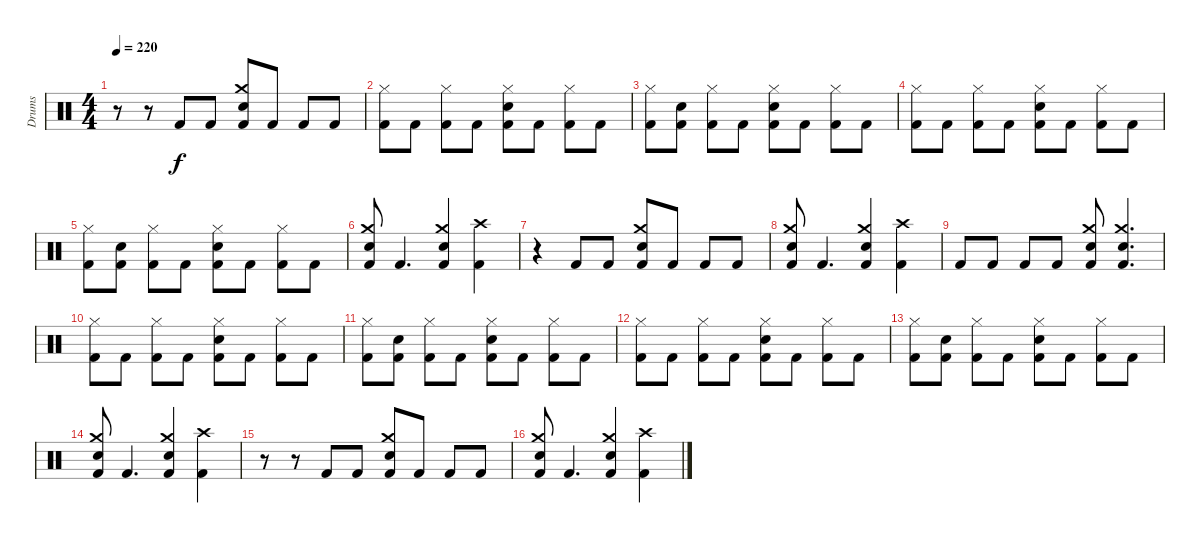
\track ("Drums" "Drums") {instrument percussion}
\staff {score}
\articulation defaults
\ts (4 4)
\tempo 220
\clef neutral
\ks c
r.8{dy f} r.8 "Kick (hit) 2".8 "Kick (hit) 2".8 ("Crash medium (hit)" "Snare (hit) 2" "Kick (hit) 2").8 "Kick (hit) 2".8 "Kick (hit) 2".8 "Kick (hit) 2".8 |
("Hi-Hat (closed)" "Kick (hit) 2").8 "Kick (hit) 2".8 ("Hi-Hat (closed)" "Kick (hit) 2").8 "Kick (hit) 2".8 ("Hi-Hat (closed)" "Snare (hit) 2" "Kick (hit) 2").8 "Kick (hit) 2".8 ("Hi-Hat (closed)" "Kick (hit) 2").8 "Kick (hit) 2".8 |
("Hi-Hat (closed)" "Kick (hit) 2").8 ("Snare (hit) 2" "Kick (hit) 2").8 ("Hi-Hat (closed)" "Kick (hit) 2").8 "Kick (hit) 2".8 ("Hi-Hat (closed)" "Snare (hit) 2" "Kick (hit) 2").8 "Kick (hit) 2".8 ("Hi-Hat (closed)" "Kick (hit) 2").8 "Kick (hit) 2".8 |
("Hi-Hat (closed)" "Kick (hit) 2").8 "Kick (hit) 2".8 ("Hi-Hat (closed)" "Kick (hit) 2").8 "Kick (hit) 2".8 ("Hi-Hat (closed)" "Snare (hit) 2" "Kick (hit) 2").8 "Kick (hit) 2".8 ("Hi-Hat (closed)" "Kick (hit) 2").8 "Kick (hit) 2".8 |
("Hi-Hat (closed)" "Kick (hit) 2").8 ("Snare (hit) 2" "Kick (hit) 2").8 ("Hi-Hat (closed)" "Kick (hit) 2").8 "Kick (hit) 2".8 ("Hi-Hat (closed)" "Snare (hit) 2" "Kick (hit) 2").8 "Kick (hit) 2".8 ("Hi-Hat (closed)" "Kick (hit) 2").8 "Kick (hit) 2".8 |
("Crash medium (hit)" "Snare (hit) 2" "Kick (hit) 2").8 "Kick (hit) 2".4{d} ("Crash medium (hit)" "Snare (hit) 2" "Kick (hit) 2").4 ("Crash high (hit)" "Kick (hit) 2").4 |
r.4 "Kick (hit) 2".8 "Kick (hit) 2".8 ("Crash medium (hit)" "Snare (hit) 2" "Kick (hit) 2").8 "Kick (hit) 2".8 "Kick (hit) 2".8 "Kick (hit) 2".8 |
("Crash medium (hit)" "Snare (hit) 2" "Kick (hit) 2").8 "Kick (hit) 2".4{d} ("Crash medium (hit)" "Snare (hit) 2" "Kick (hit) 2").4 ("Crash high (hit)" "Kick (hit) 2").4 |
"Kick (hit) 2".8 "Kick (hit) 2".8 "Kick (hit) 2".8 "Kick (hit) 2".8 ("Crash medium (hit)" "Snare (hit) 2" "Kick (hit) 2").8 ("Crash medium (hit)" "Snare (hit) 2" "Kick (hit) 2").4{d} |
("Hi-Hat (closed)" "Kick (hit) 2").8 "Kick (hit) 2".8 ("Hi-Hat (closed)" "Kick (hit) 2").8 "Kick (hit) 2".8 ("Hi-Hat (closed)" "Snare (hit) 2" "Kick (hit) 2").8 "Kick (hit) 2".8 ("Hi-Hat (closed)" "Kick (hit) 2").8 "Kick (hit) 2".8 |
("Hi-Hat (closed)" "Kick (hit) 2").8 ("Snare (hit) 2" "Kick (hit) 2").8 ("Hi-Hat (closed)" "Kick (hit) 2").8 "Kick (hit) 2".8 ("Hi-Hat (closed)" "Snare (hit) 2" "Kick (hit) 2").8 "Kick (hit) 2".8 ("Hi-Hat (closed)" "Kick (hit) 2").8 "Kick (hit) 2".8 |
("Hi-Hat (closed)" "Kick (hit) 2").8 "Kick (hit) 2".8 ("Hi-Hat (closed)" "Kick (hit) 2").8 "Kick (hit) 2".8 ("Hi-Hat (closed)" "Snare (hit) 2" "Kick (hit) 2").8 "Kick (hit) 2".8 ("Hi-Hat (closed)" "Kick (hit) 2").8 "Kick (hit) 2".8 |
("Hi-Hat (closed)" "Kick (hit) 2").8 ("Snare (hit) 2" "Kick (hit) 2").8 ("Hi-Hat (closed)" "Kick (hit) 2").8 "Kick (hit) 2".8 ("Hi-Hat (closed)" "Snare (hit) 2" "Kick (hit) 2").8 "Kick (hit) 2".8 ("Hi-Hat (closed)" "Kick (hit) 2").8 "Kick (hit) 2".8 |
("Crash medium (hit)" "Snare (hit) 2" "Kick (hit) 2").8 "Kick (hit) 2".4{d} ("Crash medium (hit)" "Snare (hit) 2" "Kick (hit) 2").4 ("Crash high (hit)" "Kick (hit) 2").4 |
r.8 r.8 "Kick (hit) 2".8 "Kick (hit) 2".8 ("Crash medium (hit)" "Snare (hit) 2" "Kick (hit) 2").8 "Kick (hit) 2".8 "Kick (hit) 2".8 "Kick (hit) 2".8 |
("Crash medium (hit)" "Snare (hit) 2" "Kick (hit) 2").8 "Kick (hit) 2".4{d} ("Crash medium (hit)" "Snare (hit) 2" "Kick (hit) 2").4 ("Crash high (hit)" "Kick (hit) 2").4
